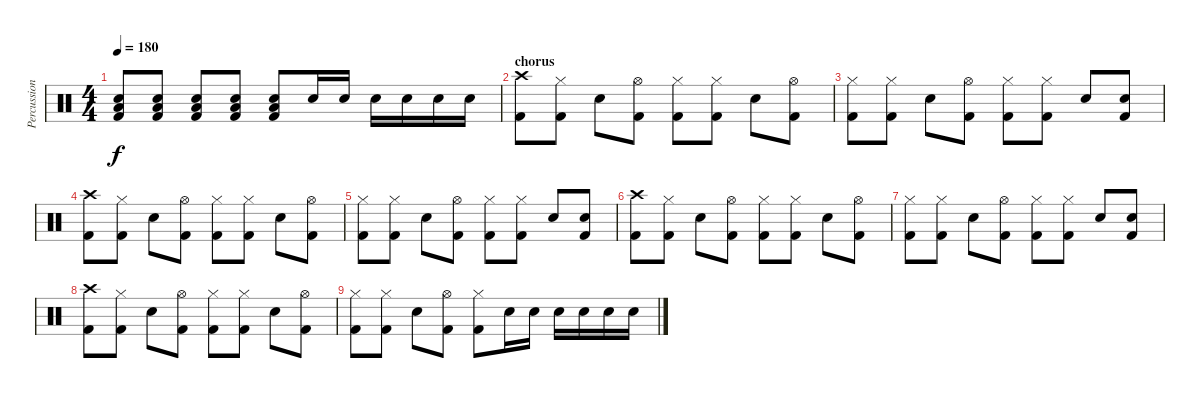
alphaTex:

\track ("Percussion" "Percussion") {instrument percussion}
\staff {score}
\articulation defaults
\ts (4 4)
\tempo 180
\clef neutral
\ks c
("Low Floor Tom (hit)" "Electric Snare (hit)" "Kick (hit) 2").8{dy f} ("Low Floor Tom (hit)" "Electric Snare (hit)" "Kick (hit) 2").8{volume 16} ("Low Floor Tom (hit)" "Electric Snare (hit)" "Kick (hit) 2").8 ("Low Floor Tom (hit)" "Electric Snare (hit)" "Kick (hit) 2").8 ("Low Floor Tom (hit)" "Electric Snare (hit)" "Kick (hit) 2").8 "Electric Snare (hit)".16{volume 13} "Electric Snare (hit)".16 "Electric Snare (hit)".16 "Electric Snare (hit)".16 "Electric Snare (hit)".16 "Electric Snare (hit)".16 |
\section ("" "chorus")
("Crash high (hit)" "Kick (hit) 2").8 ("Hi-Hat (closed)" "Kick (hit) 2").8 "Electric Snare (hit)".8 ("Hi-Hat (open)" "Kick (hit) 2").8 ("Hi-Hat (closed)" "Kick (hit) 2").8 ("Hi-Hat (closed)" "Kick (hit) 2").8 "Electric Snare (hit)".8 ("Hi-Hat (open)" "Kick (hit) 2").8 |
("Hi-Hat (closed)" "Kick (hit) 2").8 ("Hi-Hat (closed)" "Kick (hit) 2").8 "Electric Snare (hit)".8 ("Hi-Hat (open)" "Kick (hit) 2").8 ("Hi-Hat (closed)" "Kick (hit) 2").8 ("Hi-Hat (closed)" "Kick (hit) 2").8 "Electric Snare (hit)".8 ("Electric Snare (hit)" "Kick (hit) 2").8 |
("Crash high (hit)" "Kick (hit) 2").8 ("Hi-Hat (closed)" "Kick (hit) 2").8 "Electric Snare (hit)".8 ("Hi-Hat (open)" "Kick (hit) 2").8 ("Hi-Hat (closed)" "Kick (hit) 2").8 ("Hi-Hat (closed)" "Kick (hit) 2").8 "Electric Snare (hit)".8 ("Hi-Hat (open)" "Kick (hit) 2").8 |
("Hi-Hat (closed)" "Kick (hit) 2").8 ("Hi-Hat (closed)" "Kick (hit) 2").8 "Electric Snare (hit)".8 ("Hi-Hat (open)" "Kick (hit) 2").8 ("Hi-Hat (closed)" "Kick (hit) 2").8 ("Hi-Hat (closed)" "Kick (hit) 2").8 "Electric Snare (hit)".8 ("Electric Snare (hit)" "Kick (hit) 2").8 |
("Crash high (hit)" "Kick (hit) 2").8 ("Hi-Hat (closed)" "Kick (hit) 2").8 "Electric Snare (hit)".8 ("Hi-Hat (open)" "Kick (hit) 2").8 ("Hi-Hat (closed)" "Kick (hit) 2").8 ("Hi-Hat (closed)" "Kick (hit) 2").8 "Electric Snare (hit)".8 ("Hi-Hat (open)" "Kick (hit) 2").8 |
("Hi-Hat (closed)" "Kick (hit) 2").8 ("Hi-Hat (closed)" "Kick (hit) 2").8 "Electric Snare (hit)".8 ("Hi-Hat (open)" "Kick (hit) 2").8 ("Hi-Hat (closed)" "Kick (hit) 2").8 ("Hi-Hat (closed)" "Kick (hit) 2").8 "Electric Snare (hit)".8 ("Electric Snare (hit)" "Kick (hit) 2").8 |
("Crash high (hit)" "Kick (hit) 2").8 ("Hi-Hat (closed)" "Kick (hit) 2").8 "Electric Snare (hit)".8 ("Hi-Hat (open)" "Kick (hit) 2").8 ("Hi-Hat (closed)" "Kick (hit) 2").8 ("Hi-Hat (closed)" "Kick (hit) 2").8 "Electric Snare (hit)".8 ("Hi-Hat (open)" "Kick (hit) 2").8 |
("Hi-Hat (closed)" "Kick (hit) 2").8 ("Hi-Hat (closed)" "Kick (hit) 2").8 "Electric Snare (hit)".8 ("Hi-Hat (open)" "Kick (hit) 2").8 ("Hi-Hat (closed)" "Kick (hit) 2").8 "Electric Snare (hit)".16 "Electric Snare (hit)".16 "Electric Snare (hit)".16 "Electric Snare (hit)".16 "Electric Snare (hit)".16 "Electric Snare (hit)".16
